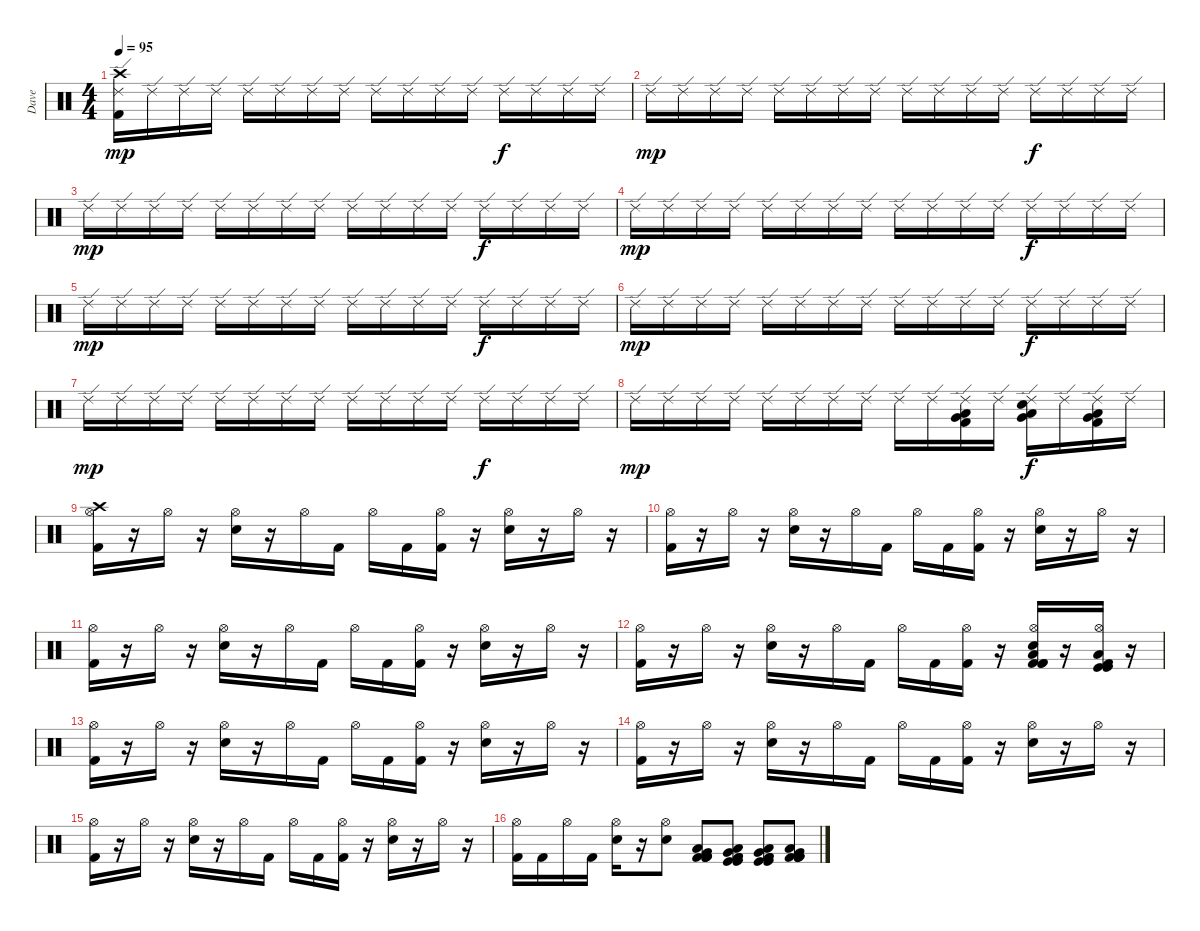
\track ("Dave" "Dave") {instrument percussion}
\staff {score}
\articulation defaults
\ts (4 4)
\tempo 95
\clef neutral
\ks c
("Ride (edge) 2" "Kick (hit) 2" "Crash high (hit)").16{dy mp} "Ride (edge) 2".16 "Ride (edge) 2".16 "Ride (edge) 2".16 "Ride (edge) 2".16 "Ride (edge) 2".16 "Ride (edge) 2".16 "Ride (edge) 2".16 "Ride (edge) 2".16 "Ride (edge) 2".16 "Ride (edge) 2".16 "Ride (edge) 2".16 "Ride (edge) 2".16{dy f} "Ride (edge) 2".16 "Ride (edge) 2".16 "Ride (edge) 2".16 |
"Ride (edge) 2".16{dy mp} "Ride (edge) 2".16 "Ride (edge) 2".16 "Ride (edge) 2".16 "Ride (edge) 2".16 "Ride (edge) 2".16 "Ride (edge) 2".16 "Ride (edge) 2".16 "Ride (edge) 2".16 "Ride (edge) 2".16 "Ride (edge) 2".16 "Ride (edge) 2".16 "Ride (edge) 2".16{dy f} "Ride (edge) 2".16 "Ride (edge) 2".16 "Ride (edge) 2".16 |
"Ride (edge) 2".16{dy mp} "Ride (edge) 2".16 "Ride (edge) 2".16 "Ride (edge) 2".16 "Ride (edge) 2".16 "Ride (edge) 2".16 "Ride (edge) 2".16 "Ride (edge) 2".16 "Ride (edge) 2".16 "Ride (edge) 2".16 "Ride (edge) 2".16 "Ride (edge) 2".16 "Ride (edge) 2".16{dy f} "Ride (edge) 2".16 "Ride (edge) 2".16 "Ride (edge) 2".16 |
"Ride (edge) 2".16{dy mp} "Ride (edge) 2".16 "Ride (edge) 2".16 "Ride (edge) 2".16 "Ride (edge) 2".16 "Ride (edge) 2".16 "Ride (edge) 2".16 "Ride (edge) 2".16 "Ride (edge) 2".16 "Ride (edge) 2".16 "Ride (edge) 2".16 "Ride (edge) 2".16 "Ride (edge) 2".16{dy f} "Ride (edge) 2".16 "Ride (edge) 2".16 "Ride (edge) 2".16 |
"Ride (edge) 2".16{dy mp} "Ride (edge) 2".16 "Ride (edge) 2".16 "Ride (edge) 2".16 "Ride (edge) 2".16 "Ride (edge) 2".16 "Ride (edge) 2".16 "Ride (edge) 2".16 "Ride (edge) 2".16 "Ride (edge) 2".16 "Ride (edge) 2".16 "Ride (edge) 2".16 "Ride (edge) 2".16{dy f} "Ride (edge) 2".16 "Ride (edge) 2".16 "Ride (edge) 2".16 |
"Ride (edge) 2".16{dy mp} "Ride (edge) 2".16 "Ride (edge) 2".16 "Ride (edge) 2".16 "Ride (edge) 2".16 "Ride (edge) 2".16 "Ride (edge) 2".16 "Ride (edge) 2".16 "Ride (edge) 2".16 "Ride (edge) 2".16 "Ride (edge) 2".16 "Ride (edge) 2".16 "Ride (edge) 2".16{dy f} "Ride (edge) 2".16 "Ride (edge) 2".16 "Ride (edge) 2".16 |
"Ride (edge) 2".16{dy mp} "Ride (edge) 2".16 "Ride (edge) 2".16 "Ride (edge) 2".16 "Ride (edge) 2".16 "Ride (edge) 2".16 "Ride (edge) 2".16 "Ride (edge) 2".16 "Ride (edge) 2".16 "Ride (edge) 2".16 "Ride (edge) 2".16 "Ride (edge) 2".16 "Ride (edge) 2".16{dy f} "Ride (edge) 2".16 "Ride (edge) 2".16 "Ride (edge) 2".16 |
"Ride (edge) 2".16{dy mp} "Ride (edge) 2".16 "Ride (edge) 2".16 "Ride (edge) 2".16 "Ride (edge) 2".16 "Ride (edge) 2".16 "Ride (edge) 2".16 "Ride (edge) 2".16 "Ride (edge) 2".16 "Ride (edge) 2".16 ("Ride (edge) 2" "Kick (hit) 2" "Very Low Tom (hit)" "Low Floor Tom (hit)").16 "Ride (edge) 2".16 ("Ride (edge) 2" "Snare (hit) 2" "Very Low Tom (hit)" "Low Floor Tom (hit)").16{dy f} "Ride (edge) 2".16 ("Ride (edge) 2" "Kick (hit) 2" "Very Low Tom (hit)" "Low Floor Tom (hit)").16 "Ride (edge) 2".16 |
("Kick (hit) 2" "Hi-Hat (open)" "Crash high (hit)").16 r.16 "Hi-Hat (open)".16 r.16 ("Snare (hit) 2" "Hi-Hat (open)").16 r.16 "Hi-Hat (open)".16 "Kick (hit) 2".16 "Hi-Hat (open)".16 "Kick (hit) 2".16 ("Kick (hit) 2" "Hi-Hat (open)").16 r.16 ("Snare (hit) 2" "Hi-Hat (open)").16 r.16 "Hi-Hat (open)".16 r.16 |
("Kick (hit) 2" "Hi-Hat (open)").16 r.16 "Hi-Hat (open)".16 r.16 ("Snare (hit) 2" "Hi-Hat (open)").16 r.16 "Hi-Hat (open)".16 "Kick (hit) 2".16 "Hi-Hat (open)".16 "Kick (hit) 2".16 ("Kick (hit) 2" "Hi-Hat (open)").16 r.16 ("Snare (hit) 2" "Hi-Hat (open)").16 r.16 "Hi-Hat (open)".16 r.16 |
("Kick (hit) 2" "Hi-Hat (open)").16 r.16 "Hi-Hat (open)".16 r.16 ("Snare (hit) 2" "Hi-Hat (open)").16 r.16 "Hi-Hat (open)".16 "Kick (hit) 2".16 "Hi-Hat (open)".16 "Kick (hit) 2".16 ("Kick (hit) 2" "Hi-Hat (open)").16 r.16 ("Snare (hit) 2" "Hi-Hat (open)").16 r.16 "Hi-Hat (open)".16 r.16 |
("Kick (hit) 2" "Hi-Hat (open)").16 r.16 "Hi-Hat (open)".16 r.16 ("Snare (hit) 2" "Hi-Hat (open)").16 r.16 "Hi-Hat (open)".16 "Kick (hit) 2".16 "Hi-Hat (open)".16 "Kick (hit) 2".16 ("Kick (hit) 2" "Hi-Hat (open)").16 r.16 ("Snare (hit) 2" "Hi-Hat (open)" "Low Tom (hit)" "Kick (hit) 2" "Kick (hit) 2" "Kick (hit) 2").16 r.16 ("Hi-Hat (open)" "Low Tom (hit)" "Kick (hit)" "Kick (hit)" "Kick (hit) 2").16 r.16 |
("Kick (hit) 2" "Hi-Hat (open)").16 r.16 "Hi-Hat (open)".16 r.16 ("Snare (hit) 2" "Hi-Hat (open)").16 r.16 "Hi-Hat (open)".16 "Kick (hit) 2".16 "Hi-Hat (open)".16 "Kick (hit) 2".16 ("Kick (hit) 2" "Hi-Hat (open)").16 r.16 ("Snare (hit) 2" "Hi-Hat (open)").16 r.16 "Hi-Hat (open)".16 r.16 |
("Kick (hit) 2" "Hi-Hat (open)").16 r.16 "Hi-Hat (open)".16 r.16 ("Snare (hit) 2" "Hi-Hat (open)").16 r.16 "Hi-Hat (open)".16 "Kick (hit) 2".16 "Hi-Hat (open)".16 "Kick (hit) 2".16 ("Kick (hit) 2" "Hi-Hat (open)").16 r.16 ("Snare (hit) 2" "Hi-Hat (open)").16 r.16 "Hi-Hat (open)".16 r.16 |
("Kick (hit) 2" "Hi-Hat (open)").16 r.16 "Hi-Hat (open)".16 r.16 ("Snare (hit) 2" "Hi-Hat (open)").16 r.16 "Hi-Hat (open)".16 "Kick (hit) 2".16 "Hi-Hat (open)".16 "Kick (hit) 2".16 ("Kick (hit) 2" "Hi-Hat (open)").16 r.16 ("Snare (hit) 2" "Hi-Hat (open)").16 r.16 "Hi-Hat (open)".16 r.16 |
("Kick (hit) 2" "Hi-Hat (open)").16 "Kick (hit) 2".16 "Hi-Hat (open)".16 "Kick (hit) 2".16 ("Snare (hit) 2" "Hi-Hat (open)").16 r.16 ("Snare (hit) 2" "Hi-Hat (open)").8 ("Kick (hit) 2" "Very Low Tom (hit)" "Low Floor Tom (hit)" "Kick (hit) 2" "Kick (hit) 2" "Kick (hit) 2").8 ("Kick (hit) 2" "Very Low Tom (hit)" "Low Floor Tom (hit)" "Kick (hit)" "Kick (hit)" "Kick (hit) 2").8 ("Kick (hit) 2" "Very Low Tom (hit)" "Low Floor Tom (hit)" "Kick (hit)" "Kick (hit)" "Kick (hit) 2").8 ("Kick (hit) 2" "Very Low Tom (hit)" "Low Floor Tom (hit)" "Kick (hit) 2" "Kick (hit) 2" "Kick (hit) 2").8
